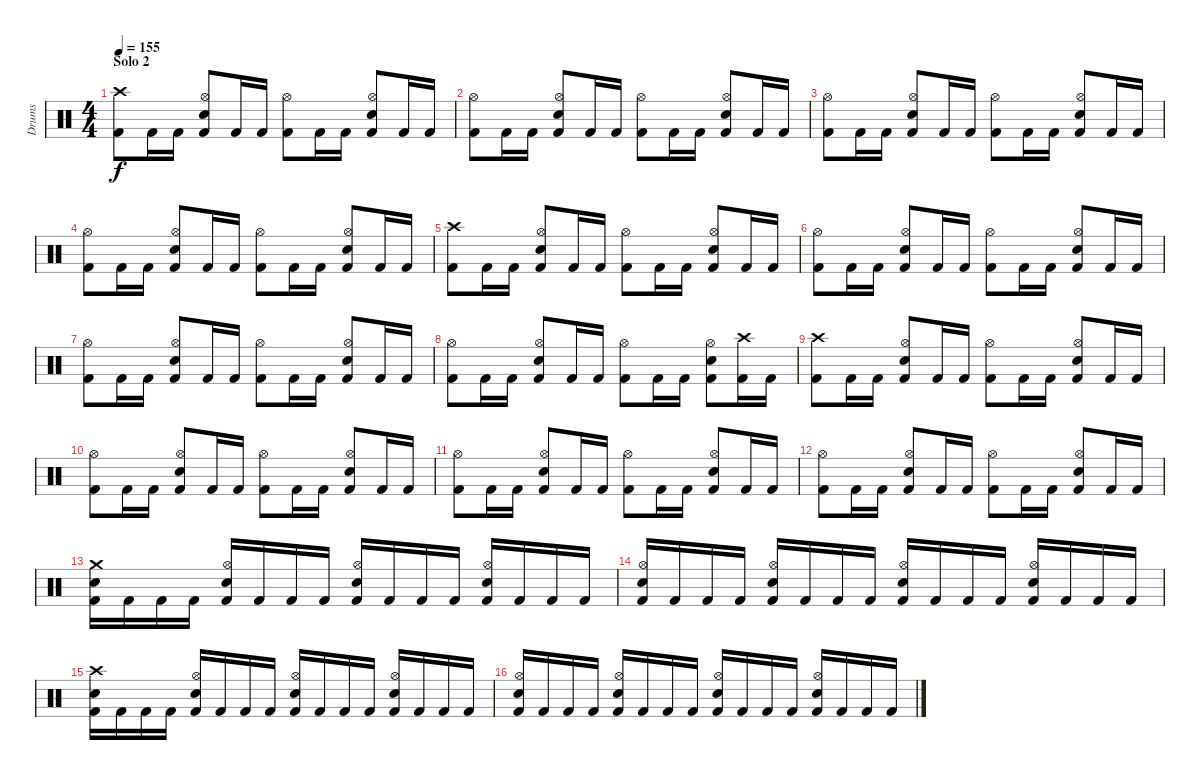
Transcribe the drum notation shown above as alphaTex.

\track ("Drums" "Drums") {instrument percussion}
\staff {score}
\articulation defaults
\ts (4 4)
\section ("" "Solo 2")
\tempo 155
\clef neutral
\ks c
("Crash high (hit)" "Kick (hit) 2").8{dy f} "Kick (hit) 2".16 "Kick (hit) 2".16 ("Hi-Hat (open)" "Snare (hit) 2" "Kick (hit) 2").8 "Kick (hit) 2".16 "Kick (hit) 2".16 ("Hi-Hat (open)" "Kick (hit) 2").8 "Kick (hit) 2".16 "Kick (hit) 2".16 ("Hi-Hat (open)" "Snare (hit) 2" "Kick (hit) 2").8 "Kick (hit) 2".16 "Kick (hit) 2".16 |
("Hi-Hat (open)" "Kick (hit) 2").8 "Kick (hit) 2".16 "Kick (hit) 2".16 ("Hi-Hat (open)" "Snare (hit) 2" "Kick (hit) 2").8 "Kick (hit) 2".16 "Kick (hit) 2".16 ("Hi-Hat (open)" "Kick (hit) 2").8 "Kick (hit) 2".16 "Kick (hit) 2".16 ("Hi-Hat (open)" "Snare (hit) 2" "Kick (hit) 2").8 "Kick (hit) 2".16 "Kick (hit) 2".16 |
("Hi-Hat (open)" "Kick (hit) 2").8 "Kick (hit) 2".16 "Kick (hit) 2".16 ("Hi-Hat (open)" "Snare (hit) 2" "Kick (hit) 2").8 "Kick (hit) 2".16 "Kick (hit) 2".16 ("Hi-Hat (open)" "Kick (hit) 2").8 "Kick (hit) 2".16 "Kick (hit) 2".16 ("Hi-Hat (open)" "Snare (hit) 2" "Kick (hit) 2").8 "Kick (hit) 2".16 "Kick (hit) 2".16 |
("Hi-Hat (open)" "Kick (hit) 2").8 "Kick (hit) 2".16 "Kick (hit) 2".16 ("Hi-Hat (open)" "Snare (hit) 2" "Kick (hit) 2").8 "Kick (hit) 2".16 "Kick (hit) 2".16 ("Hi-Hat (open)" "Kick (hit) 2").8 "Kick (hit) 2".16 "Kick (hit) 2".16 ("Hi-Hat (open)" "Snare (hit) 2" "Kick (hit) 2").8 "Kick (hit) 2".16 "Kick (hit) 2".16 |
("Crash high (hit)" "Kick (hit) 2").8 "Kick (hit) 2".16 "Kick (hit) 2".16 ("Hi-Hat (open)" "Snare (hit) 2" "Kick (hit) 2").8 "Kick (hit) 2".16 "Kick (hit) 2".16 ("Hi-Hat (open)" "Kick (hit) 2").8 "Kick (hit) 2".16 "Kick (hit) 2".16 ("Hi-Hat (open)" "Snare (hit) 2" "Kick (hit) 2").8 "Kick (hit) 2".16 "Kick (hit) 2".16 |
("Hi-Hat (open)" "Kick (hit) 2").8 "Kick (hit) 2".16 "Kick (hit) 2".16 ("Hi-Hat (open)" "Snare (hit) 2" "Kick (hit) 2").8 "Kick (hit) 2".16 "Kick (hit) 2".16 ("Hi-Hat (open)" "Kick (hit) 2").8 "Kick (hit) 2".16 "Kick (hit) 2".16 ("Hi-Hat (open)" "Snare (hit) 2" "Kick (hit) 2").8 "Kick (hit) 2".16 "Kick (hit) 2".16 |
("Hi-Hat (open)" "Kick (hit) 2").8 "Kick (hit) 2".16 "Kick (hit) 2".16 ("Hi-Hat (open)" "Snare (hit) 2" "Kick (hit) 2").8 "Kick (hit) 2".16 "Kick (hit) 2".16 ("Hi-Hat (open)" "Kick (hit) 2").8 "Kick (hit) 2".16 "Kick (hit) 2".16 ("Hi-Hat (open)" "Snare (hit) 2" "Kick (hit) 2").8 "Kick (hit) 2".16 "Kick (hit) 2".16 |
("Hi-Hat (open)" "Kick (hit) 2").8 "Kick (hit) 2".16 "Kick (hit) 2".16 ("Hi-Hat (open)" "Snare (hit) 2" "Kick (hit) 2").8 "Kick (hit) 2".16 "Kick (hit) 2".16 ("Hi-Hat (open)" "Kick (hit) 2").8 "Kick (hit) 2".16 "Kick (hit) 2".16 ("Hi-Hat (open)" "Snare (hit) 2" "Kick (hit) 2").8 ("Crash high (hit)" "Kick (hit) 2").16 "Kick (hit) 2".16 |
("Crash high (hit)" "Kick (hit) 2").8 "Kick (hit) 2".16 "Kick (hit) 2".16 ("Hi-Hat (open)" "Snare (hit) 2" "Kick (hit) 2").8 "Kick (hit) 2".16 "Kick (hit) 2".16 ("Hi-Hat (open)" "Kick (hit) 2").8 "Kick (hit) 2".16 "Kick (hit) 2".16 ("Hi-Hat (open)" "Snare (hit) 2" "Kick (hit) 2").8 "Kick (hit) 2".16 "Kick (hit) 2".16 |
("Hi-Hat (open)" "Kick (hit) 2").8 "Kick (hit) 2".16 "Kick (hit) 2".16 ("Hi-Hat (open)" "Snare (hit) 2" "Kick (hit) 2").8 "Kick (hit) 2".16 "Kick (hit) 2".16 ("Hi-Hat (open)" "Kick (hit) 2").8 "Kick (hit) 2".16 "Kick (hit) 2".16 ("Hi-Hat (open)" "Snare (hit) 2" "Kick (hit) 2").8 "Kick (hit) 2".16 "Kick (hit) 2".16 |
("Hi-Hat (open)" "Kick (hit) 2").8 "Kick (hit) 2".16 "Kick (hit) 2".16 ("Hi-Hat (open)" "Snare (hit) 2" "Kick (hit) 2").8 "Kick (hit) 2".16 "Kick (hit) 2".16 ("Hi-Hat (open)" "Kick (hit) 2").8 "Kick (hit) 2".16 "Kick (hit) 2".16 ("Hi-Hat (open)" "Snare (hit) 2" "Kick (hit) 2").8 "Kick (hit) 2".16 "Kick (hit) 2".16 |
("Hi-Hat (open)" "Kick (hit) 2").8 "Kick (hit) 2".16 "Kick (hit) 2".16 ("Hi-Hat (open)" "Snare (hit) 2" "Kick (hit) 2").8 "Kick (hit) 2".16 "Kick (hit) 2".16 ("Hi-Hat (open)" "Kick (hit) 2").8 "Kick (hit) 2".16 "Kick (hit) 2".16 ("Hi-Hat (open)" "Snare (hit) 2" "Kick (hit) 2").8 "Kick (hit) 2".16 "Kick (hit) 2".16 |
("Crash medium (hit)" "Snare (hit) 2" "Kick (hit) 2").16 "Kick (hit) 2".16 "Kick (hit) 2".16 "Kick (hit) 2".16 ("Hi-Hat (open)" "Snare (hit) 2" "Kick (hit) 2").16 "Kick (hit) 2".16 "Kick (hit) 2".16 "Kick (hit) 2".16 ("Hi-Hat (open)" "Snare (hit) 2" "Kick (hit) 2").16 "Kick (hit) 2".16 "Kick (hit) 2".16 "Kick (hit) 2".16 ("Hi-Hat (open)" "Snare (hit) 2" "Kick (hit) 2").16 "Kick (hit) 2".16 "Kick (hit) 2".16 "Kick (hit) 2".16 |
("Hi-Hat (open)" "Snare (hit) 2" "Kick (hit) 2").16 "Kick (hit) 2".16 "Kick (hit) 2".16 "Kick (hit) 2".16 ("Hi-Hat (open)" "Snare (hit) 2" "Kick (hit) 2").16 "Kick (hit) 2".16 "Kick (hit) 2".16 "Kick (hit) 2".16 ("Hi-Hat (open)" "Snare (hit) 2" "Kick (hit) 2").16 "Kick (hit) 2".16 "Kick (hit) 2".16 "Kick (hit) 2".16 ("Hi-Hat (open)" "Snare (hit) 2" "Kick (hit) 2").16 "Kick (hit) 2".16 "Kick (hit) 2".16 "Kick (hit) 2".16 |
("Crash high (hit)" "Snare (hit) 2" "Kick (hit) 2").16 "Kick (hit) 2".16 "Kick (hit) 2".16 "Kick (hit) 2".16 ("Hi-Hat (open)" "Snare (hit) 2" "Kick (hit) 2").16 "Kick (hit) 2".16 "Kick (hit) 2".16 "Kick (hit) 2".16 ("Hi-Hat (open)" "Snare (hit) 2" "Kick (hit) 2").16 "Kick (hit) 2".16 "Kick (hit) 2".16 "Kick (hit) 2".16 ("Hi-Hat (open)" "Snare (hit) 2" "Kick (hit) 2").16 "Kick (hit) 2".16 "Kick (hit) 2".16 "Kick (hit) 2".16 |
("Hi-Hat (open)" "Snare (hit) 2" "Kick (hit) 2").16 "Kick (hit) 2".16 "Kick (hit) 2".16 "Kick (hit) 2".16 ("Hi-Hat (open)" "Snare (hit) 2" "Kick (hit) 2").16 "Kick (hit) 2".16 "Kick (hit) 2".16 "Kick (hit) 2".16 ("Hi-Hat (open)" "Snare (hit) 2" "Kick (hit) 2").16 "Kick (hit) 2".16 "Kick (hit) 2".16 "Kick (hit) 2".16 ("Hi-Hat (open)" "Snare (hit) 2" "Kick (hit) 2").16 "Kick (hit) 2".16 "Kick (hit) 2".16 "Kick (hit) 2".16
